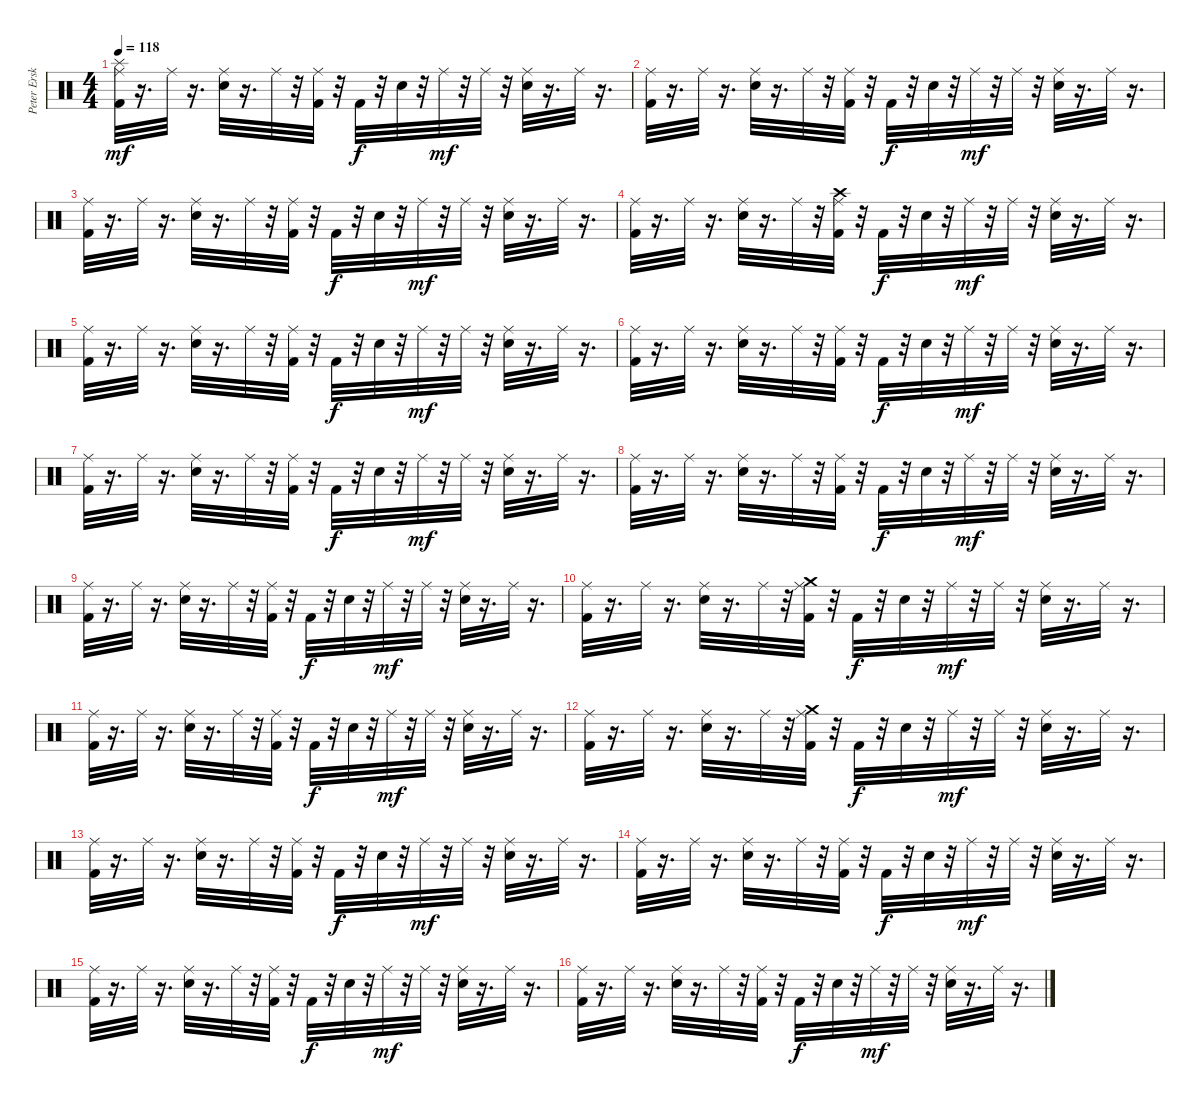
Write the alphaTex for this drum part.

\track ("Peter Erskine" "Peter Ersk") {instrument percussion}
\staff {score}
\articulation defaults
\ts (4 4)
\tempo 118
\clef neutral
\ks c
("Kick (hit) 2" "Splash (hit)" "Ride (middle)").32{dy mf} r.16{d} "Ride (middle)".32 r.16{d} ("Electric Snare (hit)" "Ride (middle)").32 r.16{d} "Ride (middle)".32 r.32 ("Kick (hit) 2" "Ride (middle)").32 r.32 "Kick (hit) 2".32{dy f} r.32 "Electric Snare (hit)".32 r.32 "Ride (middle)".32{dy mf} r.32 "Ride (middle)".32 r.32 ("Electric Snare (hit)" "Ride (middle)").32 r.16{d} "Ride (middle)".32 r.16{d} |
("Kick (hit) 2" "Ride (middle)").32 r.16{d} "Ride (middle)".32 r.16{d} ("Electric Snare (hit)" "Ride (middle)").32 r.16{d} "Ride (middle)".32 r.32 ("Kick (hit) 2" "Ride (middle)").32 r.32 "Kick (hit) 2".32{dy f} r.32 "Electric Snare (hit)".32 r.32 "Ride (middle)".32{dy mf} r.32 "Ride (middle)".32 r.32 ("Electric Snare (hit)" "Ride (middle)").32 r.16{d} "Ride (middle)".32 r.16{d} |
("Kick (hit) 2" "Ride (middle)").32 r.16{d} "Ride (middle)".32 r.16{d} ("Electric Snare (hit)" "Ride (middle)").32 r.16{d} "Ride (middle)".32 r.32 ("Kick (hit) 2" "Ride (middle)").32 r.32 "Kick (hit) 2".32{dy f} r.32 "Electric Snare (hit)".32 r.32 "Ride (middle)".32{dy mf} r.32 "Ride (middle)".32 r.32 ("Electric Snare (hit)" "Ride (middle)").32 r.16{d} "Ride (middle)".32 r.16{d} |
("Kick (hit) 2" "Ride (middle)").32 r.16{d} "Ride (middle)".32 r.16{d} ("Electric Snare (hit)" "Ride (middle)").32 r.16{d} "Ride (middle)".32 r.32 ("Kick (hit) 2" "Crash high (hit)" "Ride (middle)").32 r.32 "Kick (hit) 2".32{dy f} r.32 "Electric Snare (hit)".32 r.32 "Ride (middle)".32{dy mf} r.32 "Ride (middle)".32 r.32 ("Electric Snare (hit)" "Ride (middle)").32 r.16{d} "Ride (middle)".32 r.16{d} |
("Kick (hit) 2" "Ride (middle)").32 r.16{d} "Ride (middle)".32 r.16{d} ("Electric Snare (hit)" "Ride (middle)").32 r.16{d} "Ride (middle)".32 r.32 ("Kick (hit) 2" "Ride (middle)").32 r.32 "Kick (hit) 2".32{dy f} r.32 "Electric Snare (hit)".32 r.32 "Ride (middle)".32{dy mf} r.32 "Ride (middle)".32 r.32 ("Electric Snare (hit)" "Ride (middle)").32 r.16{d} "Ride (middle)".32 r.16{d} |
("Kick (hit) 2" "Ride (middle)").32 r.16{d} "Ride (middle)".32 r.16{d} ("Electric Snare (hit)" "Ride (middle)").32 r.16{d} "Ride (middle)".32 r.32 ("Kick (hit) 2" "Ride (middle)").32 r.32 "Kick (hit) 2".32{dy f} r.32 "Electric Snare (hit)".32 r.32 "Ride (middle)".32{dy mf} r.32 "Ride (middle)".32 r.32 ("Electric Snare (hit)" "Ride (middle)").32 r.16{d} "Ride (middle)".32 r.16{d} |
("Kick (hit) 2" "Ride (middle)").32 r.16{d} "Ride (middle)".32 r.16{d} ("Electric Snare (hit)" "Ride (middle)").32 r.16{d} "Ride (middle)".32 r.32 ("Kick (hit) 2" "Ride (middle)").32 r.32 "Kick (hit) 2".32{dy f} r.32 "Electric Snare (hit)".32 r.32 "Ride (middle)".32{dy mf} r.32 "Ride (middle)".32 r.32 ("Electric Snare (hit)" "Ride (middle)").32 r.16{d} "Ride (middle)".32 r.16{d} |
("Kick (hit) 2" "Ride (middle)").32 r.16{d} "Ride (middle)".32 r.16{d} ("Electric Snare (hit)" "Ride (middle)").32 r.16{d} "Ride (middle)".32 r.32 ("Kick (hit) 2" "Ride (middle)").32 r.32 "Kick (hit) 2".32{dy f} r.32 "Electric Snare (hit)".32 r.32 "Ride (middle)".32{dy mf} r.32 "Ride (middle)".32 r.32 ("Electric Snare (hit)" "Ride (middle)").32 r.16{d} "Ride (middle)".32 r.16{d} |
("Kick (hit) 2" "Ride (middle)").32 r.16{d} "Ride (middle)".32 r.16{d} ("Electric Snare (hit)" "Ride (middle)").32 r.16{d} "Ride (middle)".32 r.32 ("Kick (hit) 2" "Ride (middle)").32 r.32 "Kick (hit) 2".32{dy f} r.32 "Electric Snare (hit)".32 r.32 "Ride (middle)".32{dy mf} r.32 "Ride (middle)".32 r.32 ("Electric Snare (hit)" "Ride (middle)").32 r.16{d} "Ride (middle)".32 r.16{d} |
("Kick (hit) 2" "Ride (middle)").32 r.16{d} "Ride (middle)".32 r.16{d} ("Electric Snare (hit)" "Ride (middle)").32 r.16{d} "Ride (middle)".32 r.32 ("Kick (hit) 2" "Crash medium (hit)" "Ride (middle)").32 r.32 "Kick (hit) 2".32{dy f} r.32 "Electric Snare (hit)".32 r.32 "Ride (middle)".32{dy mf} r.32 "Ride (middle)".32 r.32 ("Electric Snare (hit)" "Ride (middle)").32 r.16{d} "Ride (middle)".32 r.16{d} |
("Kick (hit) 2" "Ride (middle)").32 r.16{d} "Ride (middle)".32 r.16{d} ("Electric Snare (hit)" "Ride (middle)").32 r.16{d} "Ride (middle)".32 r.32 ("Kick (hit) 2" "Ride (middle)").32 r.32 "Kick (hit) 2".32{dy f} r.32 "Electric Snare (hit)".32 r.32 "Ride (middle)".32{dy mf} r.32 "Ride (middle)".32 r.32 ("Electric Snare (hit)" "Ride (middle)").32 r.16{d} "Ride (middle)".32 r.16{d} |
("Kick (hit) 2" "Ride (middle)").32 r.16{d} "Ride (middle)".32 r.16{d} ("Electric Snare (hit)" "Ride (middle)").32 r.16{d} "Ride (middle)".32 r.32 ("Kick (hit) 2" "Crash medium (hit)" "Ride (middle)").32 r.32 "Kick (hit) 2".32{dy f} r.32 "Electric Snare (hit)".32 r.32 "Ride (middle)".32{dy mf} r.32 "Ride (middle)".32 r.32 ("Electric Snare (hit)" "Ride (middle)").32 r.16{d} "Ride (middle)".32 r.16{d} |
("Kick (hit) 2" "Ride (middle)").32 r.16{d} "Ride (middle)".32 r.16{d} ("Electric Snare (hit)" "Ride (middle)").32 r.16{d} "Ride (middle)".32 r.32 ("Kick (hit) 2" "Ride (middle)").32 r.32 "Kick (hit) 2".32{dy f} r.32 "Electric Snare (hit)".32 r.32 "Ride (middle)".32{dy mf} r.32 "Ride (middle)".32 r.32 ("Electric Snare (hit)" "Ride (middle)").32 r.16{d} "Ride (middle)".32 r.16{d} |
("Kick (hit) 2" "Ride (middle)").32 r.16{d} "Ride (middle)".32 r.16{d} ("Electric Snare (hit)" "Ride (middle)").32 r.16{d} "Ride (middle)".32 r.32 ("Kick (hit) 2" "Ride (middle)").32 r.32 "Kick (hit) 2".32{dy f} r.32 "Electric Snare (hit)".32 r.32 "Ride (middle)".32{dy mf} r.32 "Ride (middle)".32 r.32 ("Electric Snare (hit)" "Ride (middle)").32 r.16{d} "Ride (middle)".32 r.16{d} |
("Kick (hit) 2" "Ride (middle)").32 r.16{d} "Ride (middle)".32 r.16{d} ("Electric Snare (hit)" "Ride (middle)").32 r.16{d} "Ride (middle)".32 r.32 ("Kick (hit) 2" "Ride (middle)").32 r.32 "Kick (hit) 2".32{dy f} r.32 "Electric Snare (hit)".32 r.32 "Ride (middle)".32{dy mf} r.32 "Ride (middle)".32 r.32 ("Electric Snare (hit)" "Ride (middle)").32 r.16{d} "Ride (middle)".32 r.16{d} |
("Kick (hit) 2" "Ride (middle)").32 r.16{d} "Ride (middle)".32 r.16{d} ("Electric Snare (hit)" "Ride (middle)").32 r.16{d} "Ride (middle)".32 r.32 ("Kick (hit) 2" "Ride (middle)").32 r.32 "Kick (hit) 2".32{dy f} r.32 "Electric Snare (hit)".32 r.32 "Ride (middle)".32{dy mf} r.32 "Ride (middle)".32 r.32 ("Electric Snare (hit)" "Ride (middle)").32 r.16{d} "Ride (middle)".32 r.16{d}
